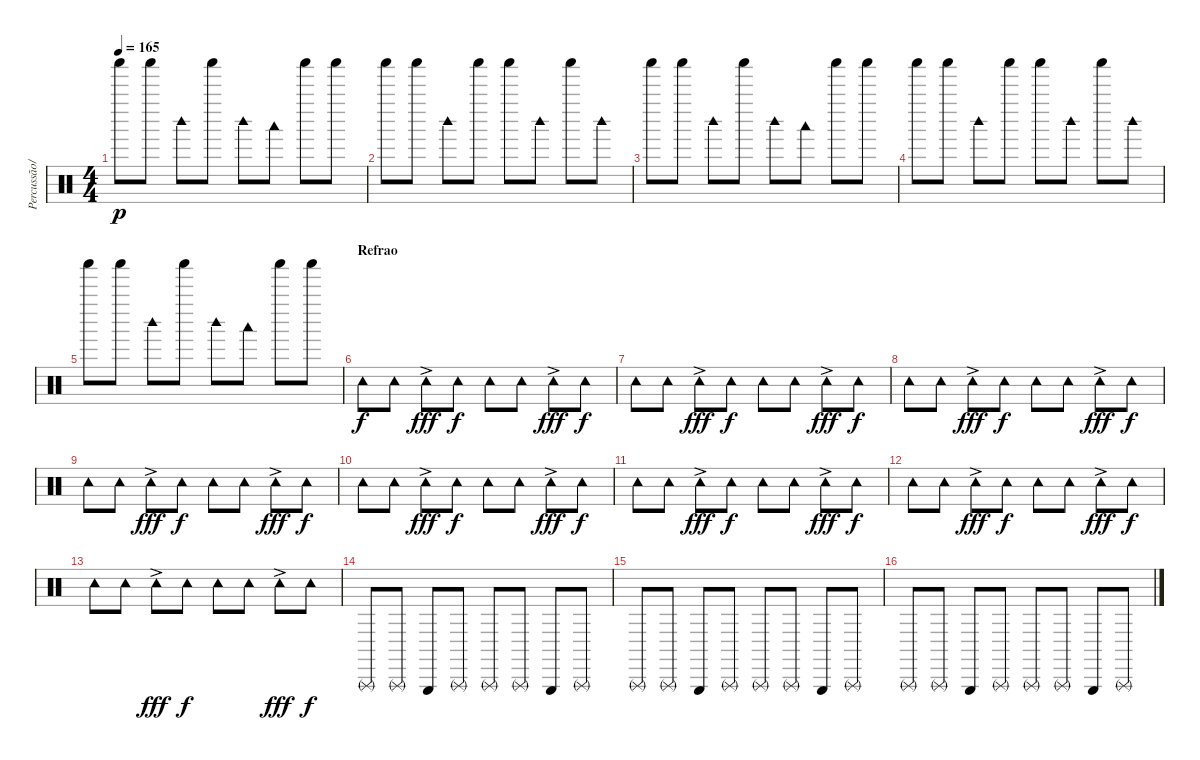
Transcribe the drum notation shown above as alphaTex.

\track ("Percussão/DJ" "Percussão/") {instrument percussion}
\staff {score}
\articulation defaults
\ts (4 4)
\tempo 165
\clef neutral
\ks c "Shaker (hit)".8{dy p} "Shaker (hit)".8 "Woodblock high (hit)".8 "Shaker (hit)".8 "Woodblock high (hit)".8 "Woodblock low (hit)".8 "Shaker (hit)".8 "Shaker (hit)".8
|
"Shaker (hit)".8 "Shaker (hit)".8 "Woodblock high (hit)".8 "Shaker (hit)".8 "Shaker (hit)".8 "Woodblock high (hit)".8 "Shaker (hit)".8 "Woodblock high (hit)".8 |
"Shaker (hit)".8 "Shaker (hit)".8 "Woodblock high (hit)".8 "Shaker (hit)".8 "Woodblock high (hit)".8 "Woodblock low (hit)".8 "Shaker (hit)".8 "Shaker (hit)".8 |
"Shaker (hit)".8 "Shaker (hit)".8 "Woodblock high (hit)".8 "Shaker (hit)".8 "Shaker (hit)".8 "Woodblock high (hit)".8 "Shaker (hit)".8 "Woodblock high (hit)".8 |
"Shaker (hit)".8 "Shaker (hit)".8 "Woodblock high (hit)".8 "Shaker (hit)".8 "Woodblock high (hit)".8 "Woodblock low (hit)".8 "Shaker (hit)".8 "Shaker (hit)".8 |
\section ("" "Refrao")
"Tambourine (hit)".8{dy f} "Tambourine (hit)".8 "Tambourine (hit)"{ac}.8{dy fff} "Tambourine (hit)".8{dy f} "Tambourine (hit)".8 "Tambourine (hit)".8 "Tambourine (hit)"{ac}.8{dy fff} "Tambourine (hit)".8{dy f} |
"Tambourine (hit)".8 "Tambourine (hit)".8 "Tambourine (hit)"{ac}.8{dy fff} "Tambourine (hit)".8{dy f} "Tambourine (hit)".8 "Tambourine (hit)".8 "Tambourine (hit)"{ac}.8{dy fff} "Tambourine (hit)".8{dy f} |
"Tambourine (hit)".8 "Tambourine (hit)".8 "Tambourine (hit)"{ac}.8{dy fff} "Tambourine (hit)".8{dy f} "Tambourine (hit)".8 "Tambourine (hit)".8 "Tambourine (hit)"{ac}.8{dy fff} "Tambourine (hit)".8{dy f} |
"Tambourine (hit)".8 "Tambourine (hit)".8 "Tambourine (hit)"{ac}.8{dy fff} "Tambourine (hit)".8{dy f} "Tambourine (hit)".8 "Tambourine (hit)".8 "Tambourine (hit)"{ac}.8{dy fff} "Tambourine (hit)".8{dy f} |
"Tambourine (hit)".8 "Tambourine (hit)".8 "Tambourine (hit)"{ac}.8{dy fff} "Tambourine (hit)".8{dy f} "Tambourine (hit)".8 "Tambourine (hit)".8 "Tambourine (hit)"{ac}.8{dy fff} "Tambourine (hit)".8{dy f} |
"Tambourine (hit)".8 "Tambourine (hit)".8 "Tambourine (hit)"{ac}.8{dy fff} "Tambourine (hit)".8{dy f} "Tambourine (hit)".8 "Tambourine (hit)".8 "Tambourine (hit)"{ac}.8{dy fff} "Tambourine (hit)".8{dy f} |
"Tambourine (hit)".8 "Tambourine (hit)".8 "Tambourine (hit)"{ac}.8{dy fff} "Tambourine (hit)".8{dy f} "Tambourine (hit)".8 "Tambourine (hit)".8 "Tambourine (hit)"{ac}.8{dy fff} "Tambourine (hit)".8{dy f} |
"Tambourine (hit)".8 "Tambourine (hit)".8 "Tambourine (hit)"{ac}.8{dy fff} "Tambourine (hit)".8{dy f} "Tambourine (hit)".8 "Tambourine (hit)".8 "Tambourine (hit)"{ac}.8{dy fff} "Tambourine (hit)".8{dy f} |
"Triangle (rnute)".8 "Triangle (rnute)".8 "Triangle (hit)".8 "Triangle (rnute)".8 "Triangle (rnute)".8 "Triangle (rnute)".8 "Triangle (hit)".8 "Triangle (rnute)".8 |
"Triangle (rnute)".8 "Triangle (rnute)".8 "Triangle (hit)".8 "Triangle (rnute)".8 "Triangle (rnute)".8 "Triangle (rnute)".8 "Triangle (hit)".8 "Triangle (rnute)".8 |
"Triangle (rnute)".8 "Triangle (rnute)".8 "Triangle (hit)".8 "Triangle (rnute)".8 "Triangle (rnute)".8 "Triangle (rnute)".8 "Triangle (hit)".8 "Triangle (rnute)".8
